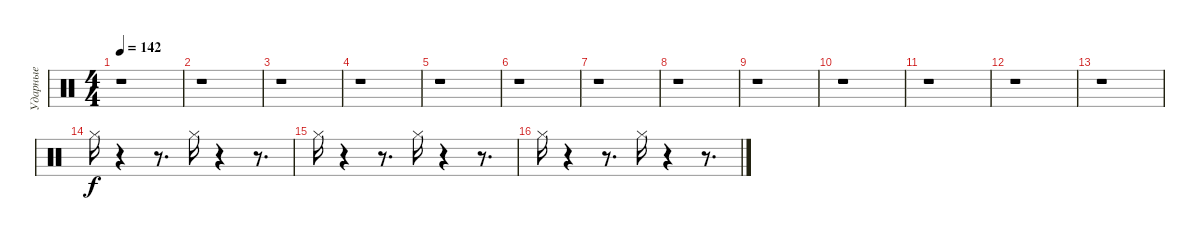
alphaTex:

\track ("Ударные" "Ударные") {instrument percussion}
\staff {score}
\articulation defaults
\ts (4 4)
\tempo 142
\clef neutral
\ks c
r.1{dy f} |
r.1 |
r.1 |
r.1 |
r.1 |
r.1 |
r.1 |
r.1 |
r.1 |
r.1 |
r.1 |
r.1 |
r.1 |
"Hi-Hat (closed)".16 r.4 r.8{d} "Hi-Hat (closed)".16 r.4 r.8{d} |
"Hi-Hat (closed)".16 r.4 r.8{d} "Hi-Hat (closed)".16 r.4 r.8{d} |
"Hi-Hat (closed)".16 r.4 r.8{d} "Hi-Hat (closed)".16 r.4 r.8{d}
